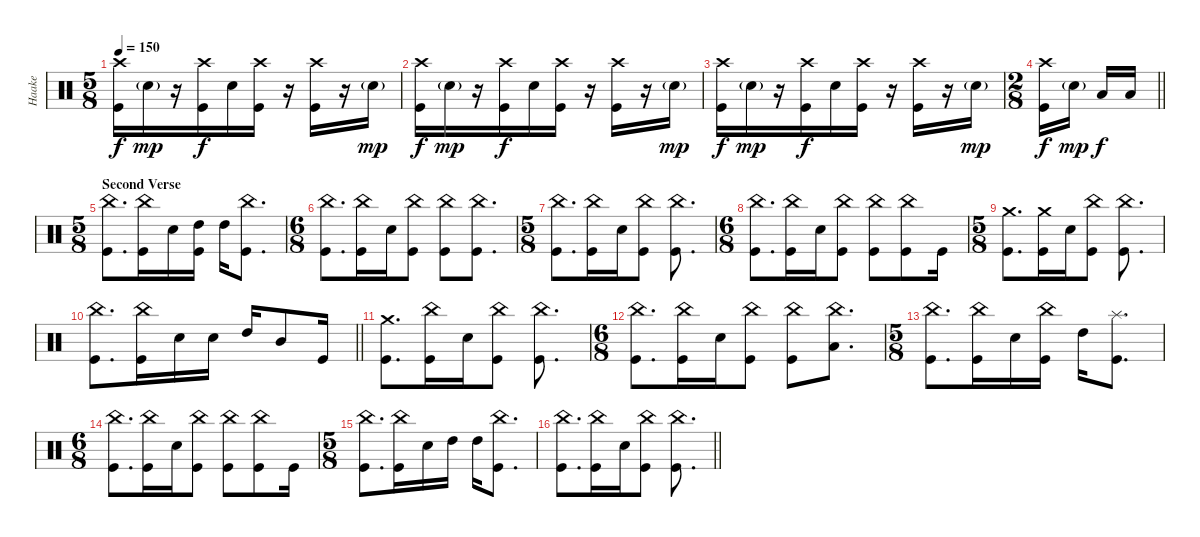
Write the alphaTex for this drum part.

\track ("Haake" "Haake") {instrument percussion}
\staff {score}
\articulation defaults
\ts (5 8)
\tempo 150
\clef neutral
\ks c
("Crash high (hit)" "Kick (hit)").16{dy f} "Snare (hit) 2"{g}.16{dy mp} r.16 ("Crash high (hit)" "Kick (hit)").16{dy f} "Snare (hit) 2".16 ("Crash high (hit)" "Kick (hit)").16 r.16 ("Crash high (hit)" "Kick (hit)").16 r.16 "Snare (hit) 2"{g}.16{dy mp} |
("Crash high (hit)" "Kick (hit)").16{dy f} "Snare (hit) 2"{g}.16{dy mp} r.16 ("Crash high (hit)" "Kick (hit)").16{dy f} "Snare (hit) 2".16 ("Crash high (hit)" "Kick (hit)").16 r.16 ("Crash high (hit)" "Kick (hit)").16 r.16 "Snare (hit) 2"{g}.16{dy mp} |
("Crash high (hit)" "Kick (hit)").16{dy f} "Snare (hit) 2"{g}.16{dy mp} r.16 ("Crash high (hit)" "Kick (hit)").16{dy f} "Snare (hit) 2".16 ("Crash high (hit)" "Kick (hit)").16 r.16 ("Crash high (hit)" "Kick (hit)").16 r.16 "Snare (hit) 2"{g}.16{dy mp} |
\ts (2 8)
\barLineRight lightlight
("Crash high (hit)" "Kick (hit)").16{dy f} "Snare (hit) 2"{g}.16{dy mp} "Low Tom (hit)".16{dy f} "Low Tom (hit)".16 |
\ts (5 8)
\section ("" "Second Verse")
("China (hit)" "Kick (hit)").8{d} ("China (hit)" "Kick (hit)").16 "Snare (hit) 2".16 ("High Tom (hit)" "Kick (hit)").16 "High Tom (hit)".16 ("China (hit)" "Kick (hit)").8{d} |
\ts (6 8)
("China (hit)" "Kick (hit)").8{d} ("China (hit)" "Kick (hit)").16 "Snare (hit) 2".16 ("China (hit)" "Kick (hit)").8 ("China (hit)" "Kick (hit)").8 ("China (hit)" "Kick (hit)").8{d} |
\ts (5 8)
("China (hit)" "Kick (hit)").8{d} ("China (hit)" "Kick (hit)").16 "Snare (hit) 2".16 ("China (hit)" "Kick (hit)").8 ("China (hit)" "Kick (hit)").8{d} |
\ts (6 8)
("China (hit)" "Kick (hit)").8{d} ("China (hit)" "Kick (hit)").16 "Snare (hit) 2".16 ("China (hit)" "Kick (hit)").8 ("China (hit)" "Kick (hit)").8 ("China (hit)" "Kick (hit)").8 "Kick (hit)".16 |
\ts (5 8)
("Crash medium (hit)" "Kick (hit)").8{d} ("Crash medium (hit)" "Kick (hit)").16 "Snare (hit) 2".16 ("China (hit)" "Kick (hit)").8 ("China (hit)" "Kick (hit)").8{d} |
\barLineRight lightlight
("China (hit)" "Kick (hit)").8{d} ("China (hit)" "Kick (hit)").16 "Snare (hit) 2".16 "Snare (hit) 2".16 "High Tom (hit)".16 "Mid Tom (hit)".8 "Kick (hit)".16 |
("Crash medium (hit)" "Kick (hit)").8{d} ("China (hit)" "Kick (hit)").16 "Snare (hit) 2".16 ("China (hit)" "Kick (hit)").8 ("China (hit)" "Kick (hit)").8{d} |
\ts (6 8)
("China (hit)" "Kick (hit)").8{d} ("China (hit)" "Kick (hit)").16 "Snare (hit) 2".16 ("China (hit)" "Kick (hit)").8 ("China (hit)" "Kick (hit)").8 ("China (hit)" "Low Tom (hit)").8{d} |
\ts (5 8)
("China (hit)" "Kick (hit)").8{d} ("China (hit)" "Kick (hit)").16 "Snare (hit) 2".16 ("China (hit)" "Kick (hit)").16 "High Tom (hit)".16 ("Splash (hit)" "Kick (hit)").8{d} |
\ts (6 8)
("China (hit)" "Kick (hit)").8{d} ("China (hit)" "Kick (hit)").16 "Snare (hit) 2".16 ("China (hit)" "Kick (hit)").8 ("China (hit)" "Kick (hit)").8 ("China (hit)" "Kick (hit)").8 "Kick (hit)".16 |
\ts (5 8)
("China (hit)" "Kick (hit)").8{d} ("China (hit)" "Kick (hit)").16 "Snare (hit) 2".16 "High Tom (hit)".16 "High Tom (hit)".16 ("China (hit)" "Kick (hit)").8{d} |
\barLineRight lightlight
("China (hit)" "Kick (hit)").8{d} ("China (hit)" "Kick (hit)").16 "Snare (hit) 2".16 ("China (hit)" "Kick (hit)").8 ("China (hit)" "Kick (hit)").8{d}
